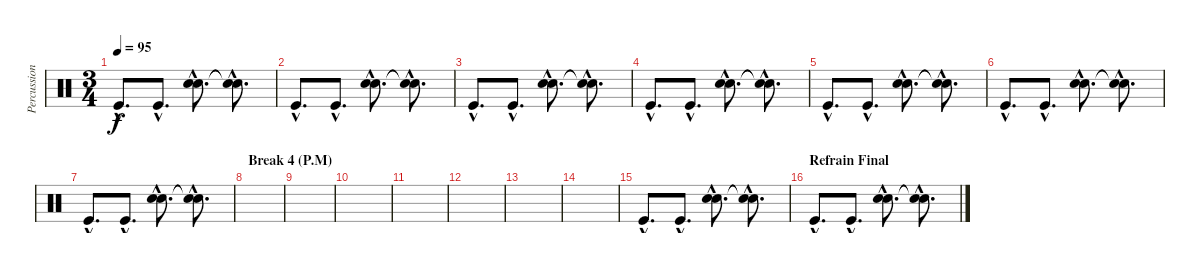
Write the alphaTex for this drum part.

\track ("Percussions " "Percussion") {instrument percussion}
\staff {score}
\articulation defaults
\ts (3 4)
\tempo 95
\clef neutral
\ks c "Kick (hit)"{hac}.8{d dy f volume 14} "Kick (hit)"{hac}.8{d}
("Electric Snare (hit)"{hac} "Hand Clap (hit)"{hac}).8{d} ("Snare (hit)"{hac t} "Snare (hit)"{hac t}).8{d} |
"Kick (hit)"{hac}.8{d volume 16} "Kick (hit)"{hac}.8{d} ("Electric Snare (hit)"{hac} "Hand Clap (hit)"{hac}).8{d} ("Snare (hit)"{hac t} "Snare (hit)"{hac t}).8{d} |
"Kick (hit)"{hac}.8{d volume 14} "Kick (hit)"{hac}.8{d} ("Electric Snare (hit)"{hac} "Hand Clap (hit)"{hac}).8{d} ("Snare (hit)"{hac t} "Snare (hit)"{hac t}).8{d} |
"Kick (hit)"{hac}.8{d volume 16} "Kick (hit)"{hac}.8{d} ("Electric Snare (hit)"{hac} "Hand Clap (hit)"{hac}).8{d} ("Snare (hit)"{hac t} "Snare (hit)"{hac t}).8{d} |
"Kick (hit)"{hac}.8{d volume 14} "Kick (hit)"{hac}.8{d} ("Electric Snare (hit)"{hac} "Hand Clap (hit)"{hac}).8{d} ("Snare (hit)"{hac t} "Snare (hit)"{hac t}).8{d} |
"Kick (hit)"{hac}.8{d volume 16} "Kick (hit)"{hac}.8{d} ("Electric Snare (hit)"{hac} "Hand Clap (hit)"{hac}).8{d} ("Snare (hit)"{hac t} "Snare (hit)"{hac t}).8{d} |
"Kick (hit)"{hac}.8{d volume 14} "Kick (hit)"{hac}.8{d} ("Electric Snare (hit)"{hac} "Hand Clap (hit)"{hac}).8{d} ("Snare (hit)"{hac t} "Snare (hit)"{hac t}).8{d} |
\section ("" "Break 4 (P.M)")
|
|
|
|
|
|
|
"Kick (hit)"{hac}.8{d volume 16} "Kick (hit)"{hac}.8{d} ("Electric Snare (hit)"{hac} "Hand Clap (hit)"{hac}).8{d} ("Snare (hit)"{hac t} "Snare (hit)"{hac t}).8{d} |
\section ("" "Refrain Final")
"Kick (hit)"{hac}.8{d volume 16} "Kick (hit)"{hac}.8{d} ("Electric Snare (hit)"{hac} "Hand Clap (hit)"{hac}).8{d} ("Snare (hit)"{hac t} "Snare (hit)"{hac t}).8{d}
